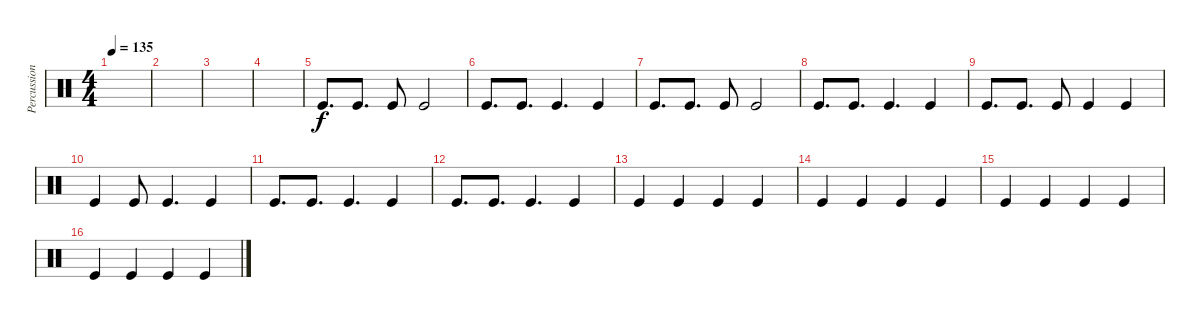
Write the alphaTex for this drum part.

\track ("Percussion" "Percussion") {instrument percussion}
\staff {score}
\articulation defaults
\ts (4 4)
\tempo 135
\clef neutral
\ks c
|
|
|
|
"Kick (hit)".8{d} "Kick (hit)".8{d} "Kick (hit)".8 "Kick (hit)".2 |
"Kick (hit)".8{d} "Kick (hit)".8{d} "Kick (hit)".4{d} "Kick (hit)".4 |
"Kick (hit)".8{d} "Kick (hit)".8{d} "Kick (hit)".8 "Kick (hit)".2 |
"Kick (hit)".8{d} "Kick (hit)".8{d} "Kick (hit)".4{d} "Kick (hit)".4 |
"Kick (hit)".8{d} "Kick (hit)".8{d} "Kick (hit)".8 "Kick (hit)".4 "Kick (hit)".4 |
"Kick (hit)".4 "Kick (hit)".8 "Kick (hit)".4{d} "Kick (hit)".4 |
"Kick (hit)".8{d} "Kick (hit)".8{d} "Kick (hit)".4{d} "Kick (hit)".4 |
"Kick (hit)".8{d} "Kick (hit)".8{d} "Kick (hit)".4{d} "Kick (hit)".4 |
"Kick (hit)".4 "Kick (hit)".4 "Kick (hit)".4 "Kick (hit)".4 |
"Kick (hit)".4 "Kick (hit)".4 "Kick (hit)".4 "Kick (hit)".4 |
"Kick (hit)".4 "Kick (hit)".4 "Kick (hit)".4 "Kick (hit)".4 |
"Kick (hit)".4 "Kick (hit)".4 "Kick (hit)".4 "Kick (hit)".4
